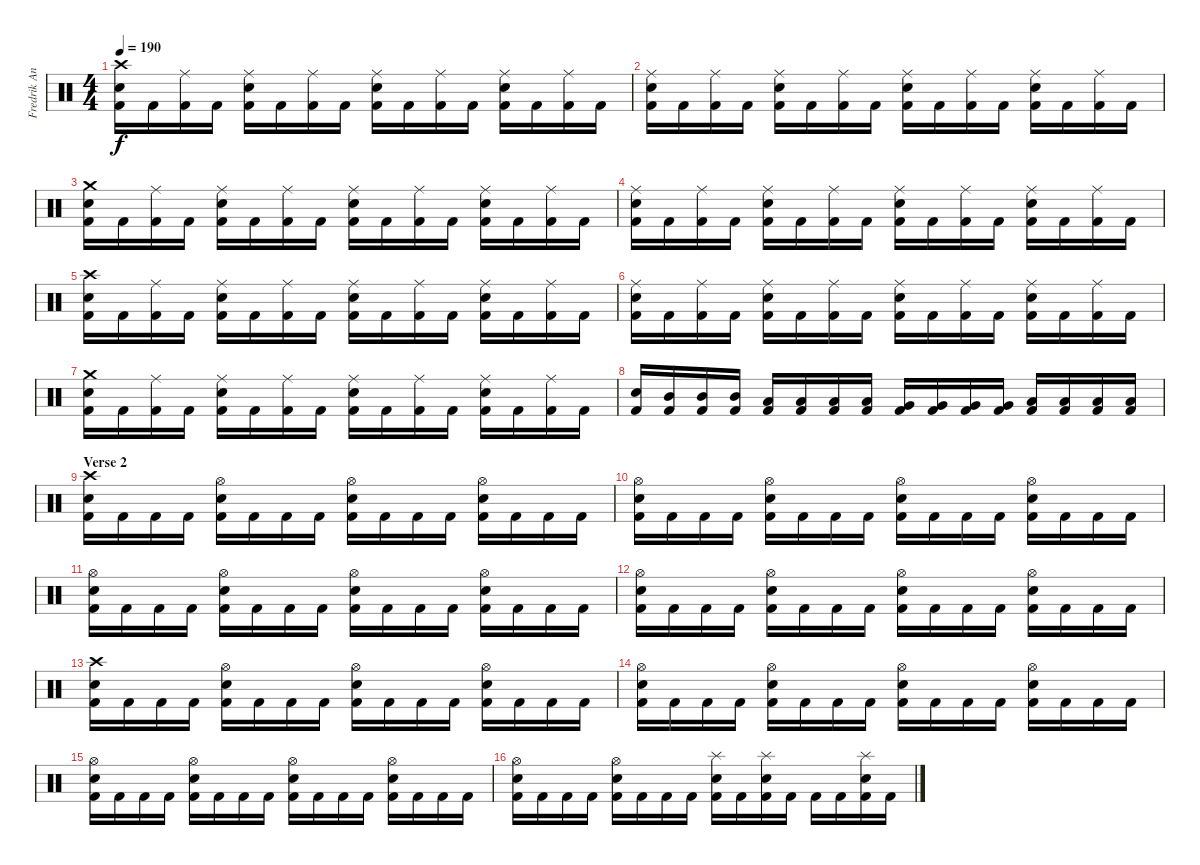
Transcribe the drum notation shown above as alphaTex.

\track ("Fredrik Andersson" "Fredrik An") {instrument percussion}
\staff {score}
\articulation defaults
\ts (4 4)
\section ("" "")
\tempo 190
\clef neutral
\ks c
("Crash high (hit)" "Electric Snare (hit)" "Kick (hit) 2").16{dy f} "Kick (hit) 2".16 ("Ride (middle)" "Kick (hit) 2").16 "Kick (hit) 2".16 ("Ride (middle)" "Electric Snare (hit)" "Kick (hit) 2").16 "Kick (hit) 2".16 ("Ride (middle)" "Kick (hit) 2").16 "Kick (hit) 2".16 ("Ride (middle)" "Electric Snare (hit)" "Kick (hit) 2").16 "Kick (hit) 2".16 ("Ride (middle)" "Kick (hit) 2").16 "Kick (hit) 2".16 ("Ride (middle)" "Electric Snare (hit)" "Kick (hit) 2").16 "Kick (hit) 2".16 ("Ride (middle)" "Kick (hit) 2").16 "Kick (hit) 2".16 |
("Ride (middle)" "Electric Snare (hit)" "Kick (hit) 2").16 "Kick (hit) 2".16 ("Ride (middle)" "Kick (hit) 2").16 "Kick (hit) 2".16 ("Ride (middle)" "Electric Snare (hit)" "Kick (hit) 2").16 "Kick (hit) 2".16 ("Ride (middle)" "Kick (hit) 2").16 "Kick (hit) 2".16 ("Ride (middle)" "Electric Snare (hit)" "Kick (hit) 2").16 "Kick (hit) 2".16 ("Ride (middle)" "Kick (hit) 2").16 "Kick (hit) 2".16 ("Ride (middle)" "Electric Snare (hit)" "Kick (hit) 2").16 "Kick (hit) 2".16 ("Ride (middle)" "Kick (hit) 2").16 "Kick (hit) 2".16 |
("Crash medium (hit)" "Electric Snare (hit)" "Kick (hit) 2").16 "Kick (hit) 2".16 ("Ride (middle)" "Kick (hit) 2").16 "Kick (hit) 2".16 ("Ride (middle)" "Electric Snare (hit)" "Kick (hit) 2").16 "Kick (hit) 2".16 ("Ride (middle)" "Kick (hit) 2").16 "Kick (hit) 2".16 ("Ride (middle)" "Electric Snare (hit)" "Kick (hit) 2").16 "Kick (hit) 2".16 ("Ride (middle)" "Kick (hit) 2").16 "Kick (hit) 2".16 ("Ride (middle)" "Electric Snare (hit)" "Kick (hit) 2").16 "Kick (hit) 2".16 ("Ride (middle)" "Kick (hit) 2").16 "Kick (hit) 2".16 |
("Ride (middle)" "Electric Snare (hit)" "Kick (hit) 2").16 "Kick (hit) 2".16 ("Ride (middle)" "Kick (hit) 2").16 "Kick (hit) 2".16 ("Ride (middle)" "Electric Snare (hit)" "Kick (hit) 2").16 "Kick (hit) 2".16 ("Ride (middle)" "Kick (hit) 2").16 "Kick (hit) 2".16 ("Ride (middle)" "Electric Snare (hit)" "Kick (hit) 2").16 "Kick (hit) 2".16 ("Ride (middle)" "Kick (hit) 2").16 "Kick (hit) 2".16 ("Ride (middle)" "Electric Snare (hit)" "Kick (hit) 2").16 "Kick (hit) 2".16 ("Ride (middle)" "Kick (hit) 2").16 "Kick (hit) 2".16 |
("Crash high (hit)" "Electric Snare (hit)" "Kick (hit) 2").16 "Kick (hit) 2".16 ("Ride (middle)" "Kick (hit) 2").16 "Kick (hit) 2".16 ("Ride (middle)" "Electric Snare (hit)" "Kick (hit) 2").16 "Kick (hit) 2".16 ("Ride (middle)" "Kick (hit) 2").16 "Kick (hit) 2".16 ("Ride (middle)" "Electric Snare (hit)" "Kick (hit) 2").16 "Kick (hit) 2".16 ("Ride (middle)" "Kick (hit) 2").16 "Kick (hit) 2".16 ("Ride (middle)" "Electric Snare (hit)" "Kick (hit) 2").16 "Kick (hit) 2".16 ("Ride (middle)" "Kick (hit) 2").16 "Kick (hit) 2".16 |
("Ride (middle)" "Electric Snare (hit)" "Kick (hit) 2").16 "Kick (hit) 2".16 ("Ride (middle)" "Kick (hit) 2").16 "Kick (hit) 2".16 ("Ride (middle)" "Electric Snare (hit)" "Kick (hit) 2").16 "Kick (hit) 2".16 ("Ride (middle)" "Kick (hit) 2").16 "Kick (hit) 2".16 ("Ride (middle)" "Electric Snare (hit)" "Kick (hit) 2").16 "Kick (hit) 2".16 ("Ride (middle)" "Kick (hit) 2").16 "Kick (hit) 2".16 ("Ride (middle)" "Electric Snare (hit)" "Kick (hit) 2").16 "Kick (hit) 2".16 ("Ride (middle)" "Kick (hit) 2").16 "Kick (hit) 2".16 |
("Crash medium (hit)" "Electric Snare (hit)" "Kick (hit) 2").16 "Kick (hit) 2".16 ("Ride (middle)" "Kick (hit) 2").16 "Kick (hit) 2".16 ("Ride (middle)" "Electric Snare (hit)" "Kick (hit) 2").16 "Kick (hit) 2".16 ("Ride (middle)" "Kick (hit) 2").16 "Kick (hit) 2".16 ("Ride (middle)" "Electric Snare (hit)" "Kick (hit) 2").16 "Kick (hit) 2".16 ("Ride (middle)" "Kick (hit) 2").16 "Kick (hit) 2".16 ("Ride (middle)" "Electric Snare (hit)" "Kick (hit) 2").16 "Kick (hit) 2".16 ("Ride (middle)" "Kick (hit) 2").16 "Kick (hit) 2".16 |
("Electric Snare (hit)" "Kick (hit) 2").16 ("Mid Tom (hit)" "Kick (hit) 2").16 ("Mid Tom (hit)" "Kick (hit) 2").16 ("Mid Tom (hit)" "Kick (hit) 2").16 ("Low Tom (hit)" "Kick (hit) 2").16 ("Low Tom (hit)" "Kick (hit) 2").16 ("Low Tom (hit)" "Kick (hit) 2").16 ("Low Tom (hit)" "Kick (hit) 2").16 ("Very Low Tom (hit)" "Kick (hit) 2").16 ("Very Low Tom (hit)" "Kick (hit) 2").16 ("Very Low Tom (hit)" "Kick (hit) 2").16 ("Very Low Tom (hit)" "Kick (hit) 2").16 ("Low Floor Tom (hit)" "Kick (hit) 2").16 ("Low Floor Tom (hit)" "Kick (hit) 2").16 ("Low Floor Tom (hit)" "Kick (hit) 2").16 ("Low Floor Tom (hit)" "Kick (hit) 2").16 |
\section ("" "Verse 2")
("Crash high (hit)" "Electric Snare (hit)" "Kick (hit) 2").16 "Kick (hit) 2".16 "Kick (hit) 2".16 "Kick (hit) 2".16 ("Hi-Hat (open)" "Electric Snare (hit)" "Kick (hit) 2").16 "Kick (hit) 2".16 "Kick (hit) 2".16 "Kick (hit) 2".16 ("Hi-Hat (open)" "Electric Snare (hit)" "Kick (hit) 2").16 "Kick (hit) 2".16 "Kick (hit) 2".16 "Kick (hit) 2".16 ("Hi-Hat (open)" "Electric Snare (hit)" "Kick (hit) 2").16 "Kick (hit) 2".16 "Kick (hit) 2".16 "Kick (hit) 2".16 |
("Hi-Hat (open)" "Electric Snare (hit)" "Kick (hit) 2").16 "Kick (hit) 2".16 "Kick (hit) 2".16 "Kick (hit) 2".16 ("Hi-Hat (open)" "Electric Snare (hit)" "Kick (hit) 2").16 "Kick (hit) 2".16 "Kick (hit) 2".16 "Kick (hit) 2".16 ("Hi-Hat (open)" "Electric Snare (hit)" "Kick (hit) 2").16 "Kick (hit) 2".16 "Kick (hit) 2".16 "Kick (hit) 2".16 ("Hi-Hat (open)" "Electric Snare (hit)" "Kick (hit) 2").16 "Kick (hit) 2".16 "Kick (hit) 2".16 "Kick (hit) 2".16 |
("Hi-Hat (open)" "Electric Snare (hit)" "Kick (hit) 2").16 "Kick (hit) 2".16 "Kick (hit) 2".16 "Kick (hit) 2".16 ("Hi-Hat (open)" "Electric Snare (hit)" "Kick (hit) 2").16 "Kick (hit) 2".16 "Kick (hit) 2".16 "Kick (hit) 2".16 ("Hi-Hat (open)" "Electric Snare (hit)" "Kick (hit) 2").16 "Kick (hit) 2".16 "Kick (hit) 2".16 "Kick (hit) 2".16 ("Hi-Hat (open)" "Electric Snare (hit)" "Kick (hit) 2").16 "Kick (hit) 2".16 "Kick (hit) 2".16 "Kick (hit) 2".16 |
("Hi-Hat (open)" "Electric Snare (hit)" "Kick (hit) 2").16 "Kick (hit) 2".16 "Kick (hit) 2".16 "Kick (hit) 2".16 ("Hi-Hat (open)" "Electric Snare (hit)" "Kick (hit) 2").16 "Kick (hit) 2".16 "Kick (hit) 2".16 "Kick (hit) 2".16 ("Hi-Hat (open)" "Electric Snare (hit)" "Kick (hit) 2").16 "Kick (hit) 2".16 "Kick (hit) 2".16 "Kick (hit) 2".16 ("Hi-Hat (open)" "Electric Snare (hit)" "Kick (hit) 2").16 "Kick (hit) 2".16 "Kick (hit) 2".16 "Kick (hit) 2".16 |
("Crash high (hit)" "Electric Snare (hit)" "Kick (hit) 2").16 "Kick (hit) 2".16 "Kick (hit) 2".16 "Kick (hit) 2".16 ("Hi-Hat (open)" "Electric Snare (hit)" "Kick (hit) 2").16 "Kick (hit) 2".16 "Kick (hit) 2".16 "Kick (hit) 2".16 ("Hi-Hat (open)" "Electric Snare (hit)" "Kick (hit) 2").16 "Kick (hit) 2".16 "Kick (hit) 2".16 "Kick (hit) 2".16 ("Hi-Hat (open)" "Electric Snare (hit)" "Kick (hit) 2").16 "Kick (hit) 2".16 "Kick (hit) 2".16 "Kick (hit) 2".16 |
("Hi-Hat (open)" "Electric Snare (hit)" "Kick (hit) 2").16 "Kick (hit) 2".16 "Kick (hit) 2".16 "Kick (hit) 2".16 ("Hi-Hat (open)" "Electric Snare (hit)" "Kick (hit) 2").16 "Kick (hit) 2".16 "Kick (hit) 2".16 "Kick (hit) 2".16 ("Hi-Hat (open)" "Electric Snare (hit)" "Kick (hit) 2").16 "Kick (hit) 2".16 "Kick (hit) 2".16 "Kick (hit) 2".16 ("Hi-Hat (open)" "Electric Snare (hit)" "Kick (hit) 2").16 "Kick (hit) 2".16 "Kick (hit) 2".16 "Kick (hit) 2".16 |
("Hi-Hat (open)" "Electric Snare (hit)" "Kick (hit) 2").16 "Kick (hit) 2".16 "Kick (hit) 2".16 "Kick (hit) 2".16 ("Hi-Hat (open)" "Electric Snare (hit)" "Kick (hit) 2").16 "Kick (hit) 2".16 "Kick (hit) 2".16 "Kick (hit) 2".16 ("Hi-Hat (open)" "Electric Snare (hit)" "Kick (hit) 2").16 "Kick (hit) 2".16 "Kick (hit) 2".16 "Kick (hit) 2".16 ("Hi-Hat (open)" "Electric Snare (hit)" "Kick (hit) 2").16 "Kick (hit) 2".16 "Kick (hit) 2".16 "Kick (hit) 2".16 |
("Hi-Hat (open)" "Electric Snare (hit)" "Kick (hit) 2").16 "Kick (hit) 2".16 "Kick (hit) 2".16 "Kick (hit) 2".16 ("Hi-Hat (open)" "Electric Snare (hit)" "Kick (hit) 2").16 "Kick (hit) 2".16 "Kick (hit) 2".16 "Kick (hit) 2".16 ("Splash (hit)" "Electric Snare (hit)" "Kick (hit) 2").16 "Kick (hit) 2".16 ("Splash (hit)" "Electric Snare (hit)" "Kick (hit) 2").16 "Kick (hit) 2".16 "Kick (hit) 2".16 "Kick (hit) 2".16 ("Splash (hit)" "Electric Snare (hit)" "Kick (hit) 2").16 "Kick (hit) 2".16
